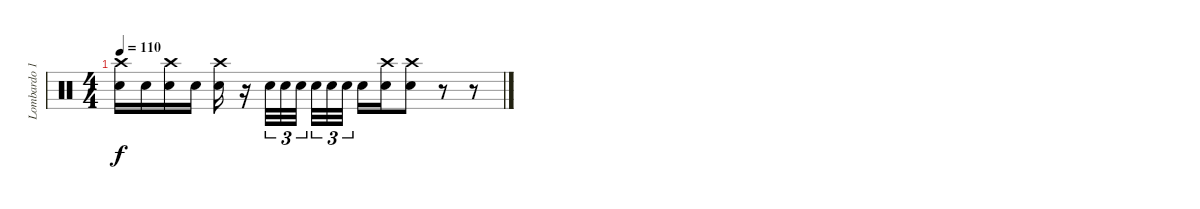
\track ("Lombardo 1" "Lombardo 1") {instrument percussion}
\staff {score}
\articulation defaults
\ts (4 4)
\tempo 110
\clef neutral
\ks c
("Crash high (hit)" "Electric Snare (hit)").16{dy f} "Electric Snare (hit)".16 ("Crash high (hit)" "Electric Snare (hit)").16 "Electric Snare (hit)".16 ("Crash high (hit)" "Electric Snare (hit)").16 r.16 "Electric Snare (hit)".32{tu (3 2)} "Electric Snare (hit)".32{tu (3 2)} "Electric Snare (hit)".32{tu (3 2) beam splitsecondary} "Electric Snare (hit)".32{tu (3 2)} "Electric Snare (hit)".32{tu (3 2)} "Electric Snare (hit)".32{tu (3 2)} "Electric Snare (hit)".16 ("Crash high (hit)" "Electric Snare (hit)").16 ("Crash high (hit)" "Electric Snare (hit)").8 r.8 r.8
